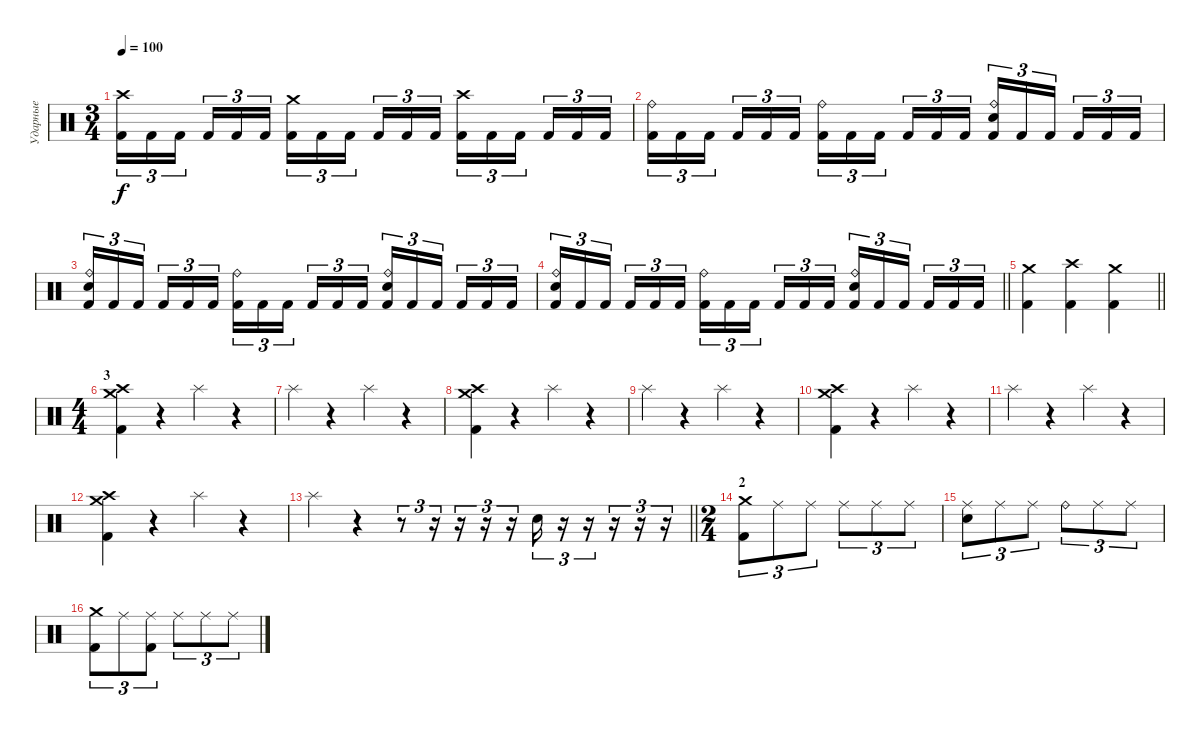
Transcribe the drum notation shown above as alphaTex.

\track ("Ударные" "Ударные") {instrument percussion}
\staff {score}
\articulation defaults
\ts (3 4)
\tempo 100
\clef neutral
\ks c
("Crash high (hit)" "Kick (hit) 2").16{tu (3 2) dy f} "Kick (hit) 2".16{tu (3 2)} "Kick (hit) 2".16{tu (3 2) beam splitsecondary} "Kick (hit) 2".16{tu (3 2)} "Kick (hit) 2".16{tu (3 2)} "Kick (hit) 2".16{tu (3 2)} ("Crash medium (hit)" "Kick (hit) 2").16{tu (3 2)} "Kick (hit) 2".16{tu (3 2)} "Kick (hit) 2".16{tu (3 2) beam splitsecondary} "Kick (hit) 2".16{tu (3 2)} "Kick (hit) 2".16{tu (3 2)} "Kick (hit) 2".16{tu (3 2)} ("Crash high (hit)" "Kick (hit) 2").16{tu (3 2)} "Kick (hit) 2".16{tu (3 2)} "Kick (hit) 2".16{tu (3 2) beam splitsecondary} "Kick (hit) 2".16{tu (3 2)} "Kick (hit) 2".16{tu (3 2)} "Kick (hit) 2".16{tu (3 2)} |
("Ride (bell)" "Kick (hit) 2").16{tu (3 2)} "Kick (hit) 2".16{tu (3 2)} "Kick (hit) 2".16{tu (3 2) beam splitsecondary} "Kick (hit) 2".16{tu (3 2)} "Kick (hit) 2".16{tu (3 2)} "Kick (hit) 2".16{tu (3 2)} ("Ride (bell)" "Kick (hit) 2").16{tu (3 2)} "Kick (hit) 2".16{tu (3 2)} "Kick (hit) 2".16{tu (3 2) beam splitsecondary} "Kick (hit) 2".16{tu (3 2)} "Kick (hit) 2".16{tu (3 2)} "Kick (hit) 2".16{tu (3 2)} ("Ride (bell)" "Electric Snare (hit)" "Kick (hit) 2").16{tu (3 2)} "Kick (hit) 2".16{tu (3 2)} "Kick (hit) 2".16{tu (3 2) beam splitsecondary} "Kick (hit) 2".16{tu (3 2)} "Kick (hit) 2".16{tu (3 2)} "Kick (hit) 2".16{tu (3 2)} |
("Ride (bell)" "Electric Snare (hit)" "Kick (hit) 2").16{tu (3 2)} "Kick (hit) 2".16{tu (3 2)} "Kick (hit) 2".16{tu (3 2) beam splitsecondary} "Kick (hit) 2".16{tu (3 2)} "Kick (hit) 2".16{tu (3 2)} "Kick (hit) 2".16{tu (3 2)} ("Ride (bell)" "Kick (hit) 2").16{tu (3 2)} "Kick (hit) 2".16{tu (3 2)} "Kick (hit) 2".16{tu (3 2) beam splitsecondary} "Kick (hit) 2".16{tu (3 2)} "Kick (hit) 2".16{tu (3 2)} "Kick (hit) 2".16{tu (3 2)} ("Ride (bell)" "Electric Snare (hit)" "Kick (hit) 2").16{tu (3 2)} "Kick (hit) 2".16{tu (3 2)} "Kick (hit) 2".16{tu (3 2) beam splitsecondary} "Kick (hit) 2".16{tu (3 2)} "Kick (hit) 2".16{tu (3 2)} "Kick (hit) 2".16{tu (3 2)} |
\barLineRight lightlight
("Ride (bell)" "Electric Snare (hit)" "Kick (hit) 2").16{tu (3 2)} "Kick (hit) 2".16{tu (3 2)} "Kick (hit) 2".16{tu (3 2) beam splitsecondary} "Kick (hit) 2".16{tu (3 2)} "Kick (hit) 2".16{tu (3 2)} "Kick (hit) 2".16{tu (3 2)} ("Ride (bell)" "Kick (hit) 2").16{tu (3 2)} "Kick (hit) 2".16{tu (3 2)} "Kick (hit) 2".16{tu (3 2) beam splitsecondary} "Kick (hit) 2".16{tu (3 2)} "Kick (hit) 2".16{tu (3 2)} "Kick (hit) 2".16{tu (3 2)} ("Ride (bell)" "Electric Snare (hit)" "Kick (hit) 2").16{tu (3 2)} "Kick (hit) 2".16{tu (3 2)} "Kick (hit) 2".16{tu (3 2) beam splitsecondary} "Kick (hit) 2".16{tu (3 2)} "Kick (hit) 2".16{tu (3 2)} "Kick (hit) 2".16{tu (3 2)} |
\barLineRight lightlight
("Crash medium (hit)" "Kick (hit) 2").4 ("Crash high (hit)" "Kick (hit) 2").4 ("Crash medium (hit)" "Kick (hit) 2").4 |
\ts (4 4)
\section ("" "3")
("Crash high (hit)" "Crash medium (hit)" "Kick (hit) 2").4 r.4 "Splash (hit)".4 r.4 |
"Splash (hit)".4 r.4 "Splash (hit)".4 r.4 |
("Crash high (hit)" "Crash medium (hit)" "Kick (hit) 2").4 r.4 "Splash (hit)".4 r.4 |
"Splash (hit)".4 r.4 "Splash (hit)".4 r.4 |
("Crash high (hit)" "Crash medium (hit)" "Kick (hit) 2").4 r.4 "Splash (hit)".4 r.4 |
"Splash (hit)".4 r.4 "Splash (hit)".4 r.4 |
("Crash high (hit)" "Crash medium (hit)" "Kick (hit) 2").4 r.4 "Splash (hit)".4 r.4 |
\barLineRight lightlight "Splash (hit)".4
r.4 r.8{tu (3 2)} r.16{tu (3 2)} r.16{tu (3 2)} r.16{tu (3 2)} r.16{tu (3 2)} "Electric Snare (hit)".16{tu (3 2)} r.16{tu (3 2)} r.16{tu (3 2)} r.16{tu (3 2)} r.16{tu (3 2)} r.16{tu (3 2)} |
\ts (2 4)
\section ("" "2")
("Crash medium (hit)" "Kick (hit) 2").8{tu (3 2)} "Ride (middle)".8{tu (3 2)} "Ride (middle)".8{tu (3 2)} "Ride (middle)".8{tu (3 2)} "Ride (middle)".8{tu (3 2)} "Ride (middle)".8{tu (3 2)} |
("Ride (middle)" "Electric Snare (hit)").8{tu (3 2)} "Ride (middle)".8{tu (3 2)} "Ride (middle)".8{tu (3 2)} "Ride (bell)".8{tu (3 2)} "Ride (middle)".8{tu (3 2)} "Ride (middle)".8{tu (3 2)} |
("Crash medium (hit)" "Kick (hit) 2").8{tu (3 2)} "Ride (middle)".8{tu (3 2)} ("Ride (middle)" "Kick (hit) 2").8{tu (3 2)} "Ride (middle)".8{tu (3 2)} "Ride (middle)".8{tu (3 2)} "Ride (middle)".8{tu (3 2)}
